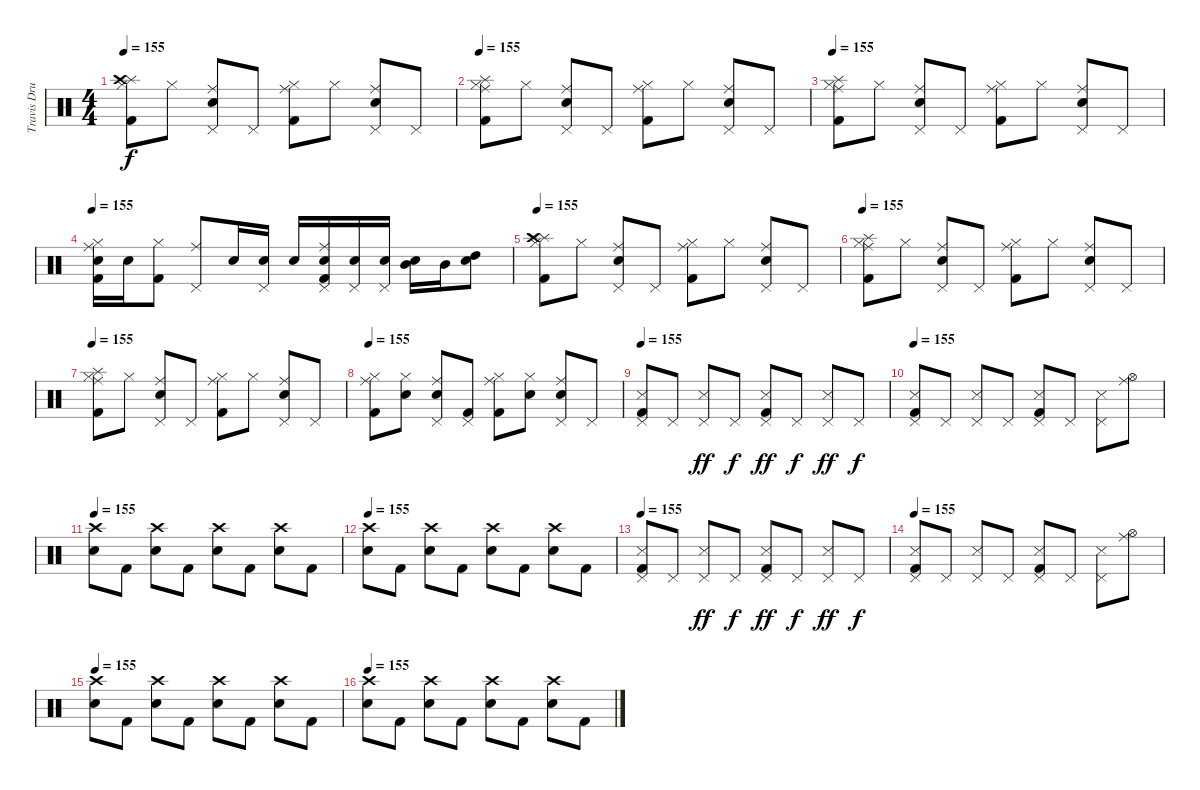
\track ("Travis Drums" "Travis Dru") {instrument percussion}
\staff {score}
\articulation defaults
\ts (4 4)
\tempo 155
\clef neutral
\ks c
("Splash (hit)" "Hi-Hat (closed)" "Kick (hit) 2" "Crash high (hit)").8{dy f} "Hi-Hat (closed)".8 ("Electric Snare (hit)" "Pedal Hi-Hat (hit)" "Ride (middle)").8 "Pedal Hi-Hat (hit)".8 ("Hi-Hat (closed)" "Kick (hit) 2" "Ride (middle)").8 "Hi-Hat (closed)".8 ("Electric Snare (hit)" "Pedal Hi-Hat (hit)" "Ride (middle)").8 "Pedal Hi-Hat (hit)".8 |
\tempo 155
("Splash (hit)" "Hi-Hat (closed)" "Kick (hit) 2" "Ride (middle)").8 "Hi-Hat (closed)".8 ("Electric Snare (hit)" "Pedal Hi-Hat (hit)" "Ride (middle)").8 "Pedal Hi-Hat (hit)".8 ("Hi-Hat (closed)" "Kick (hit) 2" "Ride (middle)").8 "Hi-Hat (closed)".8 ("Electric Snare (hit)" "Pedal Hi-Hat (hit)" "Ride (middle)").8 "Pedal Hi-Hat (hit)".8 |
\tempo 155
("Splash (hit)" "Hi-Hat (closed)" "Kick (hit) 2" "Ride (middle)").8 "Hi-Hat (closed)".8 ("Electric Snare (hit)" "Pedal Hi-Hat (hit)" "Ride (middle)").8 "Pedal Hi-Hat (hit)".8 ("Hi-Hat (closed)" "Kick (hit) 2" "Ride (middle)").8 "Hi-Hat (closed)".8 ("Electric Snare (hit)" "Pedal Hi-Hat (hit)" "Ride (middle)").8 "Pedal Hi-Hat (hit)".8 |
\tempo 155
("Electric Snare (hit)" "Hi-Hat (closed)" "Kick (hit) 2" "Ride (middle)").16 "Electric Snare (hit)".16 ("Hi-Hat (closed)" "Kick (hit) 2").8 ("Pedal Hi-Hat (hit)" "Ride (middle)").8 "Electric Snare (hit)".16 ("Electric Snare (hit)" "Pedal Hi-Hat (hit)").16 "Electric Snare (hit)".16 ("Electric Snare (hit)" "Pedal Hi-Hat (hit)" "Kick (hit) 2" "Ride (middle)").16 ("Snare (hit) 2" "Pedal Hi-Hat (hit)").16 ("Snare (hit) 2" "Pedal Hi-Hat (hit)").16 ("Electric Snare (hit)" "Mid Tom (hit)").16 "Mid Tom (hit)".16 ("Electric Snare (hit)" "High Tom (hit)").8 |
\tempo 155
("Splash (hit)" "Hi-Hat (closed)" "Kick (hit) 2" "Crash high (hit)").8 "Hi-Hat (closed)".8 ("Electric Snare (hit)" "Pedal Hi-Hat (hit)" "Ride (middle)").8 "Pedal Hi-Hat (hit)".8 ("Hi-Hat (closed)" "Kick (hit) 2" "Ride (middle)").8 "Hi-Hat (closed)".8 ("Electric Snare (hit)" "Pedal Hi-Hat (hit)" "Ride (middle)").8 "Pedal Hi-Hat (hit)".8 |
\tempo 155
("Splash (hit)" "Hi-Hat (closed)" "Kick (hit) 2" "Ride (middle)").8 "Hi-Hat (closed)".8 ("Electric Snare (hit)" "Pedal Hi-Hat (hit)" "Ride (middle)").8 "Pedal Hi-Hat (hit)".8 ("Hi-Hat (closed)" "Kick (hit) 2" "Ride (middle)").8 "Hi-Hat (closed)".8 ("Electric Snare (hit)" "Pedal Hi-Hat (hit)" "Ride (middle)").8 "Pedal Hi-Hat (hit)".8 |
\tempo 155
("Splash (hit)" "Hi-Hat (closed)" "Kick (hit) 2" "Ride (middle)").8 "Hi-Hat (closed)".8 ("Electric Snare (hit)" "Pedal Hi-Hat (hit)" "Ride (middle)").8 "Pedal Hi-Hat (hit)".8 ("Hi-Hat (closed)" "Kick (hit) 2" "Ride (middle)").8 "Hi-Hat (closed)".8 ("Electric Snare (hit)" "Pedal Hi-Hat (hit)" "Ride (middle)").8 "Pedal Hi-Hat (hit)".8 |
\tempo 155
("Hi-Hat (closed)" "Kick (hit) 2" "Ride (middle)").8 ("Electric Snare (hit)" "Hi-Hat (closed)").8 ("Electric Snare (hit)" "Pedal Hi-Hat (hit)" "Ride (middle)").8 ("Pedal Hi-Hat (hit)" "Kick (hit) 2").8 ("Hi-Hat (closed)" "Kick (hit) 2" "Ride (middle)").8 ("Electric Snare (hit)" "Hi-Hat (closed)").8 ("Electric Snare (hit)" "Pedal Hi-Hat (hit)" "Ride (middle)").8 "Pedal Hi-Hat (hit)".8 |
\tempo 155
("Metronome (hit)" "Pedal Hi-Hat (hit)" "Kick (hit) 2").8 "Pedal Hi-Hat (hit)".8 ("Metronome (hit)" "Pedal Hi-Hat (hit)").8{dy ff} "Pedal Hi-Hat (hit)".8{dy f} ("Metronome (hit)" "Pedal Hi-Hat (hit)" "Kick (hit) 2").8{dy ff} "Pedal Hi-Hat (hit)".8{dy f} ("Metronome (hit)" "Pedal Hi-Hat (hit)").8{dy ff} "Pedal Hi-Hat (hit)".8{dy f} |
\tempo 155
("Metronome (hit)" "Pedal Hi-Hat (hit)" "Kick (hit) 2").8 "Pedal Hi-Hat (hit)".8 ("Metronome (hit)" "Pedal Hi-Hat (hit)").8 "Pedal Hi-Hat (hit)".8 ("Metronome (hit)" "Pedal Hi-Hat (hit)" "Kick (hit) 2").8 "Pedal Hi-Hat (hit)".8 ("Metronome (hit)" "Pedal Hi-Hat (hit)").8 ("Hi-Hat (open)" "Ride (middle)").8 |
\tempo 155
("Electric Snare (hit)" "Crash high (hit)").8 "Kick (hit) 2".8 ("Electric Snare (hit)" "Crash high (hit)").8 "Kick (hit) 2".8 ("Electric Snare (hit)" "Crash high (hit)").8 "Kick (hit) 2".8 ("Electric Snare (hit)" "Crash high (hit)").8 "Kick (hit) 2".8 |
\tempo 155
("Electric Snare (hit)" "Crash high (hit)").8 "Kick (hit) 2".8 ("Electric Snare (hit)" "Crash high (hit)").8 "Kick (hit) 2".8 ("Electric Snare (hit)" "Crash high (hit)").8 "Kick (hit) 2".8 ("Electric Snare (hit)" "Crash high (hit)").8 "Kick (hit) 2".8 |
\tempo 155
("Metronome (hit)" "Pedal Hi-Hat (hit)" "Kick (hit) 2").8 "Pedal Hi-Hat (hit)".8 ("Metronome (hit)" "Pedal Hi-Hat (hit)").8{dy ff} "Pedal Hi-Hat (hit)".8{dy f} ("Metronome (hit)" "Pedal Hi-Hat (hit)" "Kick (hit) 2").8{dy ff} "Pedal Hi-Hat (hit)".8{dy f} ("Metronome (hit)" "Pedal Hi-Hat (hit)").8{dy ff} "Pedal Hi-Hat (hit)".8{dy f} |
\tempo 155
("Metronome (hit)" "Pedal Hi-Hat (hit)" "Kick (hit) 2").8 "Pedal Hi-Hat (hit)".8 ("Metronome (hit)" "Pedal Hi-Hat (hit)").8 "Pedal Hi-Hat (hit)".8 ("Metronome (hit)" "Pedal Hi-Hat (hit)" "Kick (hit) 2").8 "Pedal Hi-Hat (hit)".8 ("Metronome (hit)" "Pedal Hi-Hat (hit)").8 ("Hi-Hat (open)" "Ride (middle)").8 |
\tempo 155
("Electric Snare (hit)" "Crash high (hit)").8 "Kick (hit) 2".8 ("Electric Snare (hit)" "Crash high (hit)").8 "Kick (hit) 2".8 ("Electric Snare (hit)" "Crash high (hit)").8 "Kick (hit) 2".8 ("Electric Snare (hit)" "Crash high (hit)").8 "Kick (hit) 2".8 |
\tempo 155
("Electric Snare (hit)" "Crash high (hit)").8 "Kick (hit) 2".8 ("Electric Snare (hit)" "Crash high (hit)").8 "Kick (hit) 2".8 ("Electric Snare (hit)" "Crash high (hit)").8 "Kick (hit) 2".8 ("Electric Snare (hit)" "Crash high (hit)").8 "Kick (hit) 2".8
